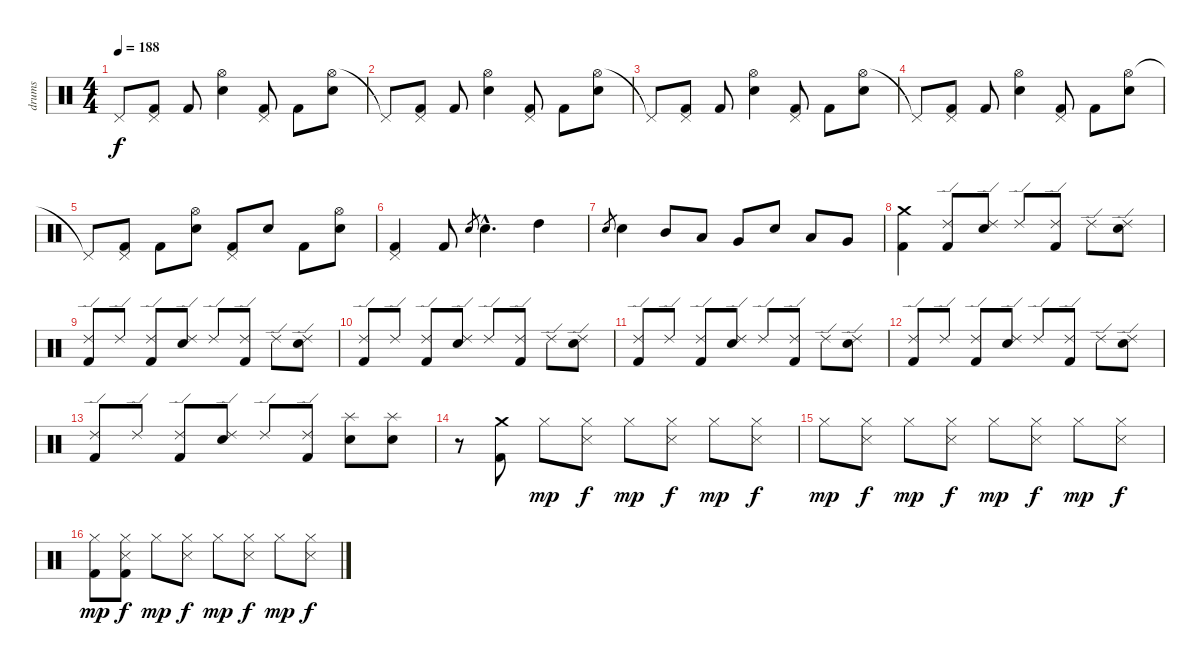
\track ("drums" "drums") {instrument percussion}
\staff {score}
\articulation defaults
\ts (4 4)
\tempo 188
\clef neutral
\ks c "Pedal Hi-Hat (hit)"{t}.8{dy f}
("Pedal Hi-Hat (hit)" "Kick (hit) 2").8 "Kick (hit) 2".8 ("Hi-Hat (open)" "Electric Snare (hit)").4 ("Pedal Hi-Hat (hit)" "Kick (hit) 2").8 "Kick (hit) 2".8 ("Hi-Hat (open)" "Electric Snare (hit)").8 |
"Pedal Hi-Hat (hit)"{t}.8 ("Pedal Hi-Hat (hit)" "Kick (hit) 2").8 "Kick (hit) 2".8 ("Hi-Hat (open)" "Electric Snare (hit)").4 ("Pedal Hi-Hat (hit)" "Kick (hit) 2").8 "Kick (hit) 2".8 ("Hi-Hat (open)" "Electric Snare (hit)").8 |
"Pedal Hi-Hat (hit)"{t}.8 ("Pedal Hi-Hat (hit)" "Kick (hit) 2").8 "Kick (hit) 2".8 ("Hi-Hat (open)" "Electric Snare (hit)").4 ("Pedal Hi-Hat (hit)" "Kick (hit) 2").8 "Kick (hit) 2".8 ("Hi-Hat (open)" "Electric Snare (hit)").8 |
"Pedal Hi-Hat (hit)"{t}.8 ("Pedal Hi-Hat (hit)" "Kick (hit) 2").8 "Kick (hit) 2".8 ("Hi-Hat (open)" "Electric Snare (hit)").4 ("Pedal Hi-Hat (hit)" "Kick (hit) 2").8 "Kick (hit) 2".8 ("Hi-Hat (open)" "Electric Snare (hit)").8 |
"Pedal Hi-Hat (hit)"{t}.8 ("Pedal Hi-Hat (hit)" "Kick (hit) 2").8 "Kick (hit) 2".8 ("Hi-Hat (open)" "Electric Snare (hit)").8 ("Pedal Hi-Hat (hit)" "Kick (hit) 2").8 "Electric Snare (hit)".8 "Kick (hit) 2".8 ("Hi-Hat (open)" "Electric Snare (hit)").8 |
("Pedal Hi-Hat (hit)" "Kick (hit) 2").4 "Kick (hit) 2".8 "Electric Snare (hit)".8{gr} "Electric Snare (hit)"{hac}.4{d} "High Tom (hit)".4 |
"Electric Snare (hit)".8{gr} "Electric Snare (hit)".4 "Mid Tom (hit)".8 "Low Tom (hit)".8 "Very Low Tom (hit)".8 "Electric Snare (hit)".8 "Low Tom (hit)".8 "Very Low Tom (hit)".8 |
("Crash medium (hit)" "Kick (hit) 2").4 ("Ride (edge) 2" "Kick (hit) 2").8 ("Ride (edge) 2" "Electric Snare (hit)").8 "Ride (edge) 2".8 ("Ride (edge) 2" "Kick (hit) 2").8 "Ride (edge) 2".8 ("Ride (edge) 2" "Electric Snare (hit)").8 |
("Ride (edge) 2" "Kick (hit) 2").8 "Ride (edge) 2".8 ("Ride (edge) 2" "Kick (hit) 2").8 ("Ride (edge) 2" "Electric Snare (hit)").8 "Ride (edge) 2".8 ("Ride (edge) 2" "Kick (hit) 2").8 "Ride (edge) 2".8 ("Ride (edge) 2" "Electric Snare (hit)").8 |
("Ride (edge) 2" "Kick (hit) 2").8 "Ride (edge) 2".8 ("Ride (edge) 2" "Kick (hit) 2").8 ("Ride (edge) 2" "Electric Snare (hit)").8 "Ride (edge) 2".8 ("Ride (edge) 2" "Kick (hit) 2").8 "Ride (edge) 2".8 ("Ride (edge) 2" "Electric Snare (hit)").8 |
("Ride (edge) 2" "Kick (hit) 2").8 "Ride (edge) 2".8 ("Ride (edge) 2" "Kick (hit) 2").8 ("Ride (edge) 2" "Electric Snare (hit)").8 "Ride (edge) 2".8 ("Ride (edge) 2" "Kick (hit) 2").8 "Ride (edge) 2".8 ("Ride (edge) 2" "Electric Snare (hit)").8 |
("Ride (edge) 2" "Kick (hit) 2").8 "Ride (edge) 2".8 ("Ride (edge) 2" "Kick (hit) 2").8 ("Ride (edge) 2" "Electric Snare (hit)").8 "Ride (edge) 2".8 ("Ride (edge) 2" "Kick (hit) 2").8 "Ride (edge) 2".8 ("Ride (edge) 2" "Electric Snare (hit)").8 |
("Ride (edge) 2" "Kick (hit) 2").8 "Ride (edge) 2".8 ("Ride (edge) 2" "Kick (hit) 2").8 ("Ride (edge) 2" "Electric Snare (hit)").8 "Ride (edge) 2".8 ("Ride (edge) 2" "Kick (hit) 2").8 ("Splash (hit)" "Electric Snare (hit)").8 ("Splash (hit)" "Electric Snare (hit)").8 |
r.8 ("Crash medium (hit)" "Kick (hit) 2").8 "Hi-Hat (closed)".8{dy mp} ("Hi-Hat (closed)" "Snare (side stick) 3").8{dy f} "Hi-Hat (closed)".8{dy mp} ("Hi-Hat (closed)" "Snare (side stick) 3").8{dy f} "Hi-Hat (closed)".8{dy mp} ("Hi-Hat (closed)" "Snare (side stick) 3").8{dy f} |
"Hi-Hat (closed)".8{dy mp} ("Hi-Hat (closed)" "Snare (side stick) 3").8{dy f} "Hi-Hat (closed)".8{dy mp} ("Hi-Hat (closed)" "Snare (side stick) 3").8{dy f} "Hi-Hat (closed)".8{dy mp} ("Hi-Hat (closed)" "Snare (side stick) 3").8{dy f} "Hi-Hat (closed)".8{dy mp} ("Hi-Hat (closed)" "Snare (side stick) 3").8{dy f} |
("Hi-Hat (closed)" "Kick (hit) 2").8{dy mp} ("Hi-Hat (closed)" "Snare (side stick) 3" "Kick (hit) 2").8{dy f} "Hi-Hat (closed)".8{dy mp} ("Hi-Hat (closed)" "Snare (side stick) 3").8{dy f} "Hi-Hat (closed)".8{dy mp} ("Hi-Hat (closed)" "Snare (side stick) 3").8{dy f} "Hi-Hat (closed)".8{dy mp} ("Hi-Hat (closed)" "Snare (side stick) 3").8{dy f}
